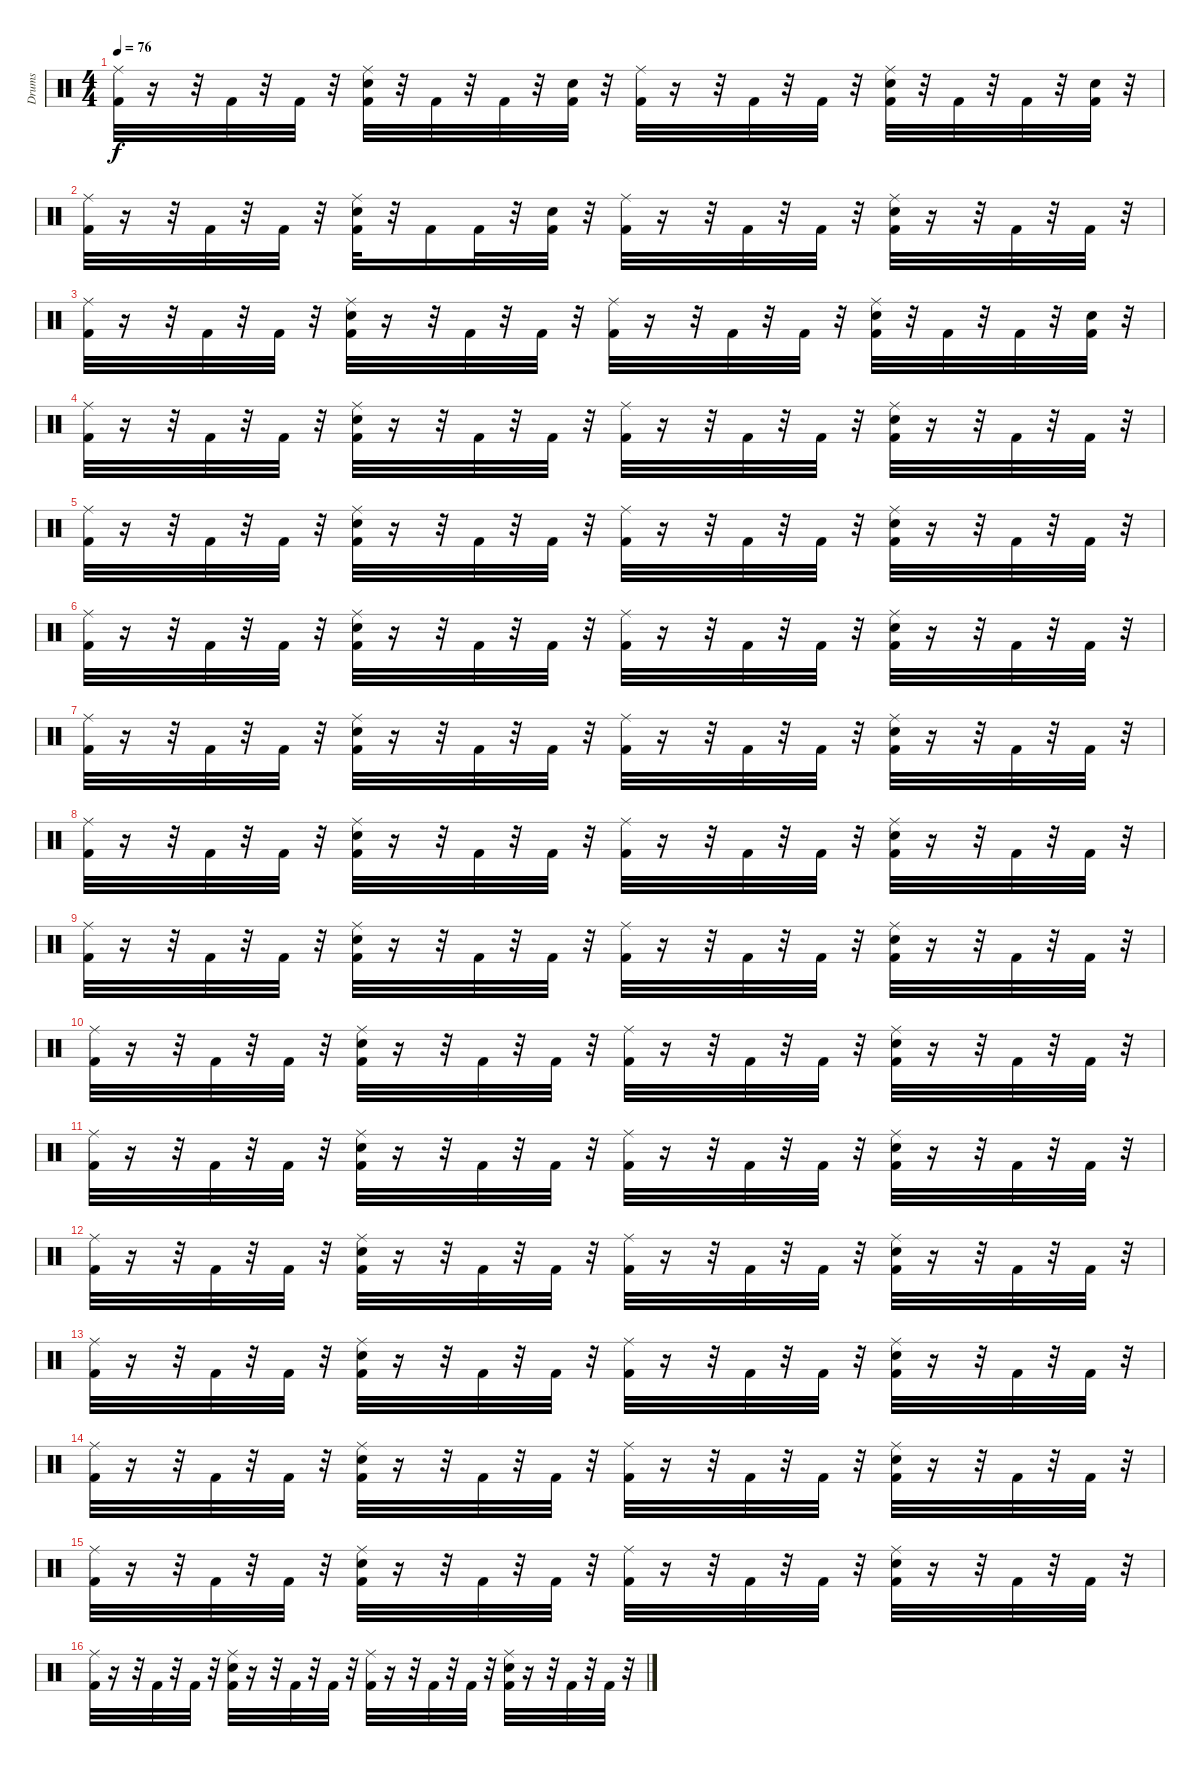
\track ("Drums" "Drums") {instrument percussion}
\staff {score}
\articulation defaults
\ts (4 4)
\tempo 76
\clef neutral
\ks c
("Ride (middle)" "Kick (hit) 2").32{dy f} r.16 r.32 "Kick (hit) 2".32 r.32 "Kick (hit) 2".32 r.32 ("Ride (middle)" "Snare (hit) 2" "Kick (hit) 2").32 r.32 "Kick (hit) 2".32 r.32 "Kick (hit) 2".32 r.32 ("Electric Snare (hit)" "Kick (hit) 2").32 r.32 ("Ride (middle)" "Kick (hit) 2").32 r.16 r.32 "Kick (hit) 2".32 r.32 "Kick (hit) 2".32 r.32 ("Ride (middle)" "Snare (hit) 2" "Kick (hit) 2").32 r.32 "Kick (hit) 2".32 r.32 "Kick (hit) 2".32 r.32 ("Electric Snare (hit)" "Kick (hit) 2").32 r.32 |
("Ride (middle)" "Kick (hit) 2").32 r.16 r.32 "Kick (hit) 2".32 r.32 "Kick (hit) 2".32 r.32 ("Ride (middle)" "Snare (hit) 2" "Kick (hit) 2").32 r.32 "Kick (hit) 2".16 "Kick (hit) 2".32 r.32 ("Snare (hit) 2" "Kick (hit) 2").32 r.32 ("Ride (middle)" "Kick (hit) 2").32 r.16 r.32 "Kick (hit) 2".32 r.32 "Kick (hit) 2".32 r.32 ("Ride (middle)" "Snare (hit) 2" "Kick (hit) 2").32 r.16 r.32 "Kick (hit) 2".32 r.32 "Kick (hit) 2".32 r.32 |
("Ride (middle)" "Kick (hit) 2").32 r.16 r.32 "Kick (hit) 2".32 r.32 "Kick (hit) 2".32 r.32 ("Ride (middle)" "Snare (hit) 2" "Kick (hit) 2").32 r.16 r.32 "Kick (hit) 2".32 r.32 "Kick (hit) 2".32 r.32 ("Ride (middle)" "Kick (hit) 2").32 r.16 r.32 "Kick (hit) 2".32 r.32 "Kick (hit) 2".32 r.32 ("Ride (middle)" "Snare (hit) 2" "Kick (hit) 2").32 r.32 "Kick (hit) 2".32 r.32 "Kick (hit) 2".32 r.32 ("Electric Snare (hit)" "Kick (hit) 2").32 r.32 |
("Ride (middle)" "Kick (hit) 2").32 r.16 r.32 "Kick (hit) 2".32 r.32 "Kick (hit) 2".32 r.32 ("Ride (middle)" "Snare (hit) 2" "Kick (hit) 2").32 r.16 r.32 "Kick (hit) 2".32 r.32 "Kick (hit) 2".32 r.32 ("Ride (middle)" "Kick (hit) 2").32 r.16 r.32 "Kick (hit) 2".32 r.32 "Kick (hit) 2".32 r.32 ("Ride (middle)" "Snare (hit) 2" "Kick (hit) 2").32 r.16 r.32 "Kick (hit) 2".32 r.32 "Kick (hit) 2".32 r.32 |
("Ride (middle)" "Kick (hit) 2").32 r.16 r.32 "Kick (hit) 2".32 r.32 "Kick (hit) 2".32 r.32 ("Ride (middle)" "Snare (hit) 2" "Kick (hit) 2").32 r.16 r.32 "Kick (hit) 2".32 r.32 "Kick (hit) 2".32 r.32 ("Ride (middle)" "Kick (hit) 2").32 r.16 r.32 "Kick (hit) 2".32 r.32 "Kick (hit) 2".32 r.32 ("Ride (middle)" "Snare (hit) 2" "Kick (hit) 2").32 r.16 r.32 "Kick (hit) 2".32 r.32 "Kick (hit) 2".32 r.32 |
("Ride (middle)" "Kick (hit) 2").32 r.16 r.32 "Kick (hit) 2".32 r.32 "Kick (hit) 2".32 r.32 ("Ride (middle)" "Snare (hit) 2" "Kick (hit) 2").32 r.16 r.32 "Kick (hit) 2".32 r.32 "Kick (hit) 2".32 r.32 ("Ride (middle)" "Kick (hit) 2").32 r.16 r.32 "Kick (hit) 2".32 r.32 "Kick (hit) 2".32 r.32 ("Ride (middle)" "Snare (hit) 2" "Kick (hit) 2").32 r.16 r.32 "Kick (hit) 2".32 r.32 "Kick (hit) 2".32 r.32 |
("Ride (middle)" "Kick (hit) 2").32 r.16 r.32 "Kick (hit) 2".32 r.32 "Kick (hit) 2".32 r.32 ("Ride (middle)" "Snare (hit) 2" "Kick (hit) 2").32 r.16 r.32 "Kick (hit) 2".32 r.32 "Kick (hit) 2".32 r.32 ("Ride (middle)" "Kick (hit) 2").32 r.16 r.32 "Kick (hit) 2".32 r.32 "Kick (hit) 2".32 r.32 ("Ride (middle)" "Snare (hit) 2" "Kick (hit) 2").32 r.16 r.32 "Kick (hit) 2".32 r.32 "Kick (hit) 2".32 r.32 |
("Ride (middle)" "Kick (hit) 2").32 r.16 r.32 "Kick (hit) 2".32 r.32 "Kick (hit) 2".32 r.32 ("Ride (middle)" "Snare (hit) 2" "Kick (hit) 2").32 r.16 r.32 "Kick (hit) 2".32 r.32 "Kick (hit) 2".32 r.32 ("Ride (middle)" "Kick (hit) 2").32 r.16 r.32 "Kick (hit) 2".32 r.32 "Kick (hit) 2".32 r.32 ("Ride (middle)" "Snare (hit) 2" "Kick (hit) 2").32 r.16 r.32 "Kick (hit) 2".32 r.32 "Kick (hit) 2".32 r.32 |
("Ride (middle)" "Kick (hit) 2").32 r.16 r.32 "Kick (hit) 2".32 r.32 "Kick (hit) 2".32 r.32 ("Ride (middle)" "Snare (hit) 2" "Kick (hit) 2").32 r.16 r.32 "Kick (hit) 2".32 r.32 "Kick (hit) 2".32 r.32 ("Ride (middle)" "Kick (hit) 2").32 r.16 r.32 "Kick (hit) 2".32 r.32 "Kick (hit) 2".32 r.32 ("Ride (middle)" "Snare (hit) 2" "Kick (hit) 2").32 r.16 r.32 "Kick (hit) 2".32 r.32 "Kick (hit) 2".32 r.32 |
("Ride (middle)" "Kick (hit) 2").32 r.16 r.32 "Kick (hit) 2".32 r.32 "Kick (hit) 2".32 r.32 ("Ride (middle)" "Snare (hit) 2" "Kick (hit) 2").32 r.16 r.32 "Kick (hit) 2".32 r.32 "Kick (hit) 2".32 r.32 ("Ride (middle)" "Kick (hit) 2").32 r.16 r.32 "Kick (hit) 2".32 r.32 "Kick (hit) 2".32 r.32 ("Ride (middle)" "Snare (hit) 2" "Kick (hit) 2").32 r.16 r.32 "Kick (hit) 2".32 r.32 "Kick (hit) 2".32 r.32 |
("Ride (middle)" "Kick (hit) 2").32 r.16 r.32 "Kick (hit) 2".32 r.32 "Kick (hit) 2".32 r.32 ("Ride (middle)" "Snare (hit) 2" "Kick (hit) 2").32 r.16 r.32 "Kick (hit) 2".32 r.32 "Kick (hit) 2".32 r.32 ("Ride (middle)" "Kick (hit) 2").32 r.16 r.32 "Kick (hit) 2".32 r.32 "Kick (hit) 2".32 r.32 ("Ride (middle)" "Snare (hit) 2" "Kick (hit) 2").32 r.16 r.32 "Kick (hit) 2".32 r.32 "Kick (hit) 2".32 r.32 |
("Ride (middle)" "Kick (hit) 2").32 r.16 r.32 "Kick (hit) 2".32 r.32 "Kick (hit) 2".32 r.32 ("Ride (middle)" "Snare (hit) 2" "Kick (hit) 2").32 r.16 r.32 "Kick (hit) 2".32 r.32 "Kick (hit) 2".32 r.32 ("Ride (middle)" "Kick (hit) 2").32 r.16 r.32 "Kick (hit) 2".32 r.32 "Kick (hit) 2".32 r.32 ("Ride (middle)" "Snare (hit) 2" "Kick (hit) 2").32 r.16 r.32 "Kick (hit) 2".32 r.32 "Kick (hit) 2".32 r.32 |
("Ride (middle)" "Kick (hit) 2").32 r.16 r.32 "Kick (hit) 2".32 r.32 "Kick (hit) 2".32 r.32 ("Ride (middle)" "Snare (hit) 2" "Kick (hit) 2").32 r.16 r.32 "Kick (hit) 2".32 r.32 "Kick (hit) 2".32 r.32 ("Ride (middle)" "Kick (hit) 2").32 r.16 r.32 "Kick (hit) 2".32 r.32 "Kick (hit) 2".32 r.32 ("Ride (middle)" "Snare (hit) 2" "Kick (hit) 2").32 r.16 r.32 "Kick (hit) 2".32 r.32 "Kick (hit) 2".32 r.32 |
("Ride (middle)" "Kick (hit) 2").32 r.16 r.32 "Kick (hit) 2".32 r.32 "Kick (hit) 2".32 r.32 ("Ride (middle)" "Snare (hit) 2" "Kick (hit) 2").32 r.16 r.32 "Kick (hit) 2".32 r.32 "Kick (hit) 2".32 r.32 ("Ride (middle)" "Kick (hit) 2").32 r.16 r.32 "Kick (hit) 2".32 r.32 "Kick (hit) 2".32 r.32 ("Ride (middle)" "Snare (hit) 2" "Kick (hit) 2").32 r.16 r.32 "Kick (hit) 2".32 r.32 "Kick (hit) 2".32 r.32 |
("Ride (middle)" "Kick (hit) 2").32 r.16 r.32 "Kick (hit) 2".32 r.32 "Kick (hit) 2".32 r.32 ("Ride (middle)" "Snare (hit) 2" "Kick (hit) 2").32 r.16 r.32 "Kick (hit) 2".32 r.32 "Kick (hit) 2".32 r.32 ("Ride (middle)" "Kick (hit) 2").32 r.16 r.32 "Kick (hit) 2".32 r.32 "Kick (hit) 2".32 r.32 ("Ride (middle)" "Snare (hit) 2" "Kick (hit) 2").32 r.16 r.32 "Kick (hit) 2".32 r.32 "Kick (hit) 2".32 r.32 |
("Ride (middle)" "Kick (hit) 2").32 r.16 r.32 "Kick (hit) 2".32 r.32 "Kick (hit) 2".32 r.32 ("Ride (middle)" "Snare (hit) 2" "Kick (hit) 2").32 r.16 r.32 "Kick (hit) 2".32 r.32 "Kick (hit) 2".32 r.32 ("Ride (middle)" "Kick (hit) 2").32 r.16 r.32 "Kick (hit) 2".32 r.32 "Kick (hit) 2".32 r.32 ("Ride (middle)" "Snare (hit) 2" "Kick (hit) 2").32 r.16 r.32 "Kick (hit) 2".32 r.32 "Kick (hit) 2".32 r.32
